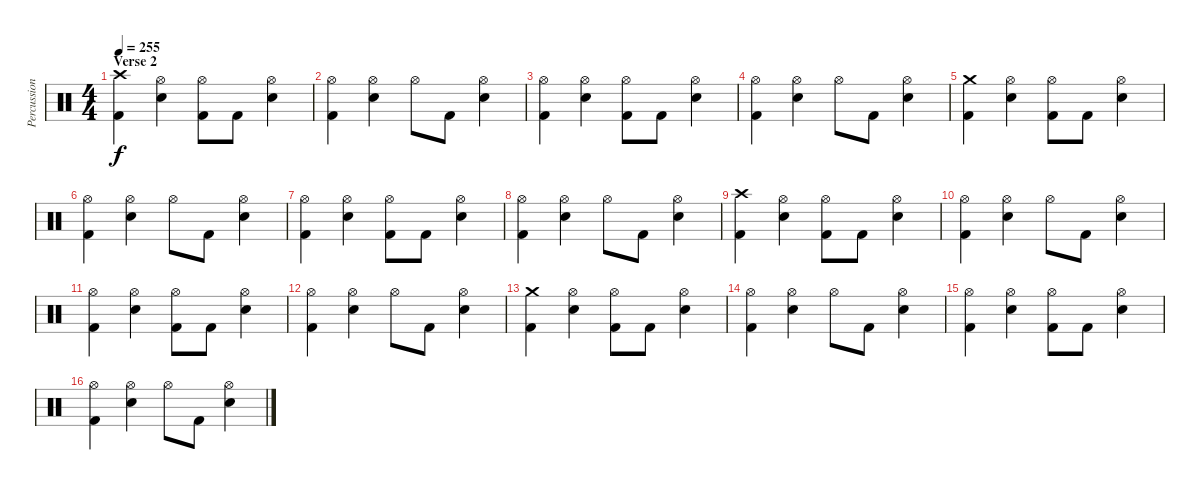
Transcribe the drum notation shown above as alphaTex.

\track ("Percussion" "Percussion") {instrument percussion}
\staff {score}
\articulation defaults
\ts (4 4)
\section ("" "Verse 2")
\tempo 255
\clef neutral
\ks c
("Crash high (hit)" "Kick (hit) 2").4{dy f} ("Hi-Hat (open)" "Electric Snare (hit)").4 ("Hi-Hat (open)" "Kick (hit) 2").8 "Kick (hit) 2".8 ("Hi-Hat (open)" "Electric Snare (hit)").4 |
("Hi-Hat (open)" "Kick (hit) 2").4 ("Hi-Hat (open)" "Electric Snare (hit)").4 "Hi-Hat (open)".8 "Kick (hit) 2".8 ("Hi-Hat (open)" "Electric Snare (hit)").4 |
("Hi-Hat (open)" "Kick (hit) 2").4 ("Hi-Hat (open)" "Electric Snare (hit)").4 ("Hi-Hat (open)" "Kick (hit) 2").8 "Kick (hit) 2".8 ("Hi-Hat (open)" "Electric Snare (hit)").4 |
("Hi-Hat (open)" "Kick (hit) 2").4 ("Hi-Hat (open)" "Electric Snare (hit)").4 "Hi-Hat (open)".8 "Kick (hit) 2".8 ("Hi-Hat (open)" "Electric Snare (hit)").4 |
("Crash medium (hit)" "Kick (hit) 2").4 ("Hi-Hat (open)" "Electric Snare (hit)").4 ("Hi-Hat (open)" "Kick (hit) 2").8 "Kick (hit) 2".8 ("Hi-Hat (open)" "Electric Snare (hit)").4 |
("Hi-Hat (open)" "Kick (hit) 2").4 ("Hi-Hat (open)" "Electric Snare (hit)").4 "Hi-Hat (open)".8 "Kick (hit) 2".8 ("Hi-Hat (open)" "Electric Snare (hit)").4 |
("Hi-Hat (open)" "Kick (hit) 2").4 ("Hi-Hat (open)" "Electric Snare (hit)").4 ("Hi-Hat (open)" "Kick (hit) 2").8 "Kick (hit) 2".8 ("Hi-Hat (open)" "Electric Snare (hit)").4 |
("Hi-Hat (open)" "Kick (hit) 2").4 ("Hi-Hat (open)" "Electric Snare (hit)").4 "Hi-Hat (open)".8 "Kick (hit) 2".8 ("Hi-Hat (open)" "Electric Snare (hit)").4 |
("Crash high (hit)" "Kick (hit) 2").4 ("Hi-Hat (open)" "Electric Snare (hit)").4 ("Hi-Hat (open)" "Kick (hit) 2").8 "Kick (hit) 2".8 ("Hi-Hat (open)" "Electric Snare (hit)").4 |
("Hi-Hat (open)" "Kick (hit) 2").4 ("Hi-Hat (open)" "Electric Snare (hit)").4 "Hi-Hat (open)".8 "Kick (hit) 2".8 ("Hi-Hat (open)" "Electric Snare (hit)").4 |
("Hi-Hat (open)" "Kick (hit) 2").4 ("Hi-Hat (open)" "Electric Snare (hit)").4 ("Hi-Hat (open)" "Kick (hit) 2").8 "Kick (hit) 2".8 ("Hi-Hat (open)" "Electric Snare (hit)").4 |
("Hi-Hat (open)" "Kick (hit) 2").4 ("Hi-Hat (open)" "Electric Snare (hit)").4 "Hi-Hat (open)".8 "Kick (hit) 2".8 ("Hi-Hat (open)" "Electric Snare (hit)").4 |
("Crash medium (hit)" "Kick (hit) 2").4 ("Hi-Hat (open)" "Electric Snare (hit)").4 ("Hi-Hat (open)" "Kick (hit) 2").8 "Kick (hit) 2".8 ("Hi-Hat (open)" "Electric Snare (hit)").4 |
("Hi-Hat (open)" "Kick (hit) 2").4 ("Hi-Hat (open)" "Electric Snare (hit)").4 "Hi-Hat (open)".8 "Kick (hit) 2".8 ("Hi-Hat (open)" "Electric Snare (hit)").4 |
("Hi-Hat (open)" "Kick (hit) 2").4 ("Hi-Hat (open)" "Electric Snare (hit)").4 ("Hi-Hat (open)" "Kick (hit) 2").8 "Kick (hit) 2".8 ("Hi-Hat (open)" "Electric Snare (hit)").4 |
("Hi-Hat (open)" "Kick (hit) 2").4 ("Hi-Hat (open)" "Electric Snare (hit)").4 "Hi-Hat (open)".8 "Kick (hit) 2".8 ("Hi-Hat (open)" "Electric Snare (hit)").4
